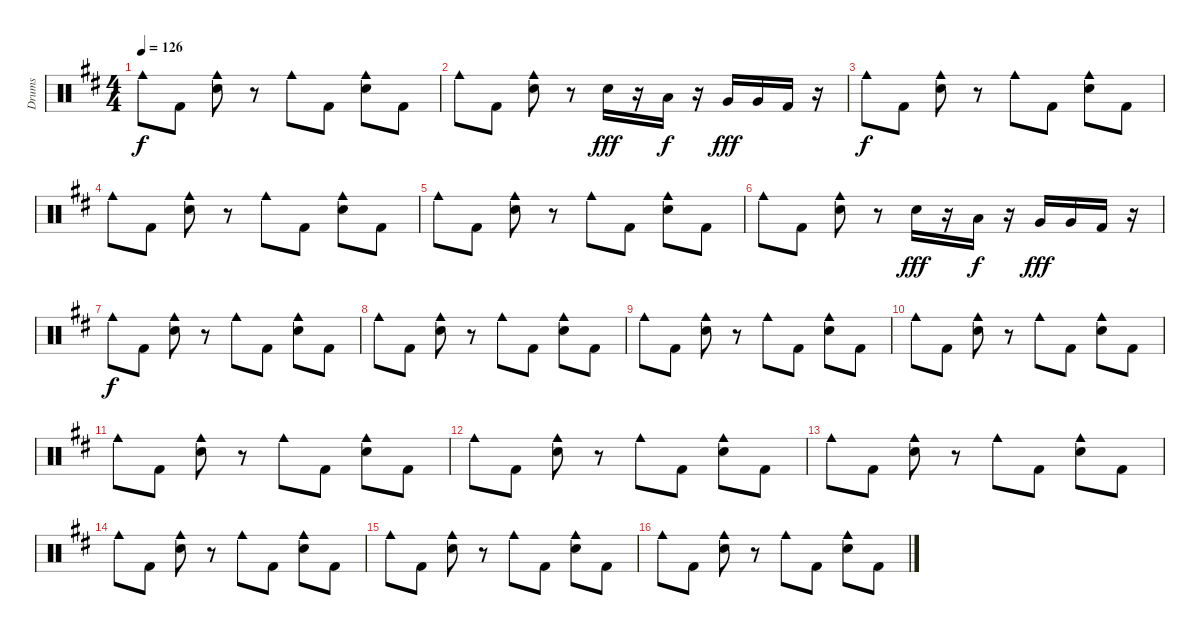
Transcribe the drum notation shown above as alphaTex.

\track ("Drums" "Drums") {instrument percussion}
\staff {score}
\articulation defaults
\ts (4 4)
\tempo 126
\clef neutral
\ks d "Cowbell medium (hit)".8{dy f} "Kick (hit) 2".8
("Cowbell medium (hit)" "Snare (hit) 2").8 r.8 "Cowbell medium (hit)".8 "Kick (hit) 2".8 ("Cowbell medium (hit)" "Snare (hit) 2").8 "Kick (hit) 2".8 |
"Cowbell medium (hit)".8 "Kick (hit) 2".8 ("Cowbell medium (hit)" "Snare (hit) 2").8 r.8 "Snare (hit) 2".16{dy fff} r.16 "Low Tom (hit)".16{dy f} r.16 "Very Low Tom (hit)".16{dy fff} "Very Low Tom (hit)".16 "Kick (hit) 2".16 r.16 |
"Cowbell medium (hit)".8{dy f} "Kick (hit) 2".8 ("Cowbell medium (hit)" "Snare (hit) 2").8 r.8 "Cowbell medium (hit)".8 "Kick (hit) 2".8 ("Cowbell medium (hit)" "Snare (hit) 2").8 "Kick (hit) 2".8 |
"Cowbell medium (hit)".8 "Kick (hit) 2".8 ("Cowbell medium (hit)" "Snare (hit) 2").8 r.8 "Cowbell medium (hit)".8 "Kick (hit) 2".8 ("Cowbell medium (hit)" "Snare (hit) 2").8 "Kick (hit) 2".8 |
"Cowbell medium (hit)".8 "Kick (hit) 2".8 ("Cowbell medium (hit)" "Snare (hit) 2").8 r.8 "Cowbell medium (hit)".8 "Kick (hit) 2".8 ("Cowbell medium (hit)" "Snare (hit) 2").8 "Kick (hit) 2".8 |
"Cowbell medium (hit)".8 "Kick (hit) 2".8 ("Cowbell medium (hit)" "Snare (hit) 2").8 r.8 "Snare (hit) 2".16{dy fff} r.16 "Low Tom (hit)".16{dy f} r.16 "Very Low Tom (hit)".16{dy fff} "Very Low Tom (hit)".16 "Kick (hit) 2".16 r.16 |
"Cowbell medium (hit)".8{dy f} "Kick (hit) 2".8 ("Cowbell medium (hit)" "Snare (hit) 2").8 r.8 "Cowbell medium (hit)".8 "Kick (hit) 2".8 ("Cowbell medium (hit)" "Snare (hit) 2").8 "Kick (hit) 2".8 |
"Cowbell medium (hit)".8 "Kick (hit) 2".8 ("Cowbell medium (hit)" "Snare (hit) 2").8 r.8 "Cowbell medium (hit)".8 "Kick (hit) 2".8 ("Cowbell medium (hit)" "Snare (hit) 2").8 "Kick (hit) 2".8 |
"Cowbell medium (hit)".8 "Kick (hit) 2".8 ("Cowbell medium (hit)" "Snare (hit) 2").8 r.8 "Cowbell medium (hit)".8 "Kick (hit) 2".8 ("Cowbell medium (hit)" "Snare (hit) 2").8 "Kick (hit) 2".8 |
"Cowbell medium (hit)".8 "Kick (hit) 2".8 ("Cowbell medium (hit)" "Snare (hit) 2").8 r.8 "Cowbell medium (hit)".8 "Kick (hit) 2".8 ("Cowbell medium (hit)" "Snare (hit) 2").8 "Kick (hit) 2".8 |
"Cowbell medium (hit)".8 "Kick (hit) 2".8 ("Cowbell medium (hit)" "Snare (hit) 2").8 r.8 "Cowbell medium (hit)".8 "Kick (hit) 2".8 ("Cowbell medium (hit)" "Snare (hit) 2").8 "Kick (hit) 2".8 |
"Cowbell medium (hit)".8 "Kick (hit) 2".8 ("Cowbell medium (hit)" "Snare (hit) 2").8 r.8 "Cowbell medium (hit)".8 "Kick (hit) 2".8 ("Cowbell medium (hit)" "Snare (hit) 2").8 "Kick (hit) 2".8 |
"Cowbell medium (hit)".8 "Kick (hit) 2".8 ("Cowbell medium (hit)" "Snare (hit) 2").8 r.8 "Cowbell medium (hit)".8 "Kick (hit) 2".8 ("Cowbell medium (hit)" "Snare (hit) 2").8 "Kick (hit) 2".8 |
"Cowbell medium (hit)".8 "Kick (hit) 2".8 ("Cowbell medium (hit)" "Snare (hit) 2").8 r.8 "Cowbell medium (hit)".8 "Kick (hit) 2".8 ("Cowbell medium (hit)" "Snare (hit) 2").8 "Kick (hit) 2".8 |
"Cowbell medium (hit)".8 "Kick (hit) 2".8 ("Cowbell medium (hit)" "Snare (hit) 2").8 r.8 "Cowbell medium (hit)".8 "Kick (hit) 2".8 ("Cowbell medium (hit)" "Snare (hit) 2").8 "Kick (hit) 2".8 |
"Cowbell medium (hit)".8 "Kick (hit) 2".8 ("Cowbell medium (hit)" "Snare (hit) 2").8 r.8 "Cowbell medium (hit)".8 "Kick (hit) 2".8 ("Cowbell medium (hit)" "Snare (hit) 2").8 "Kick (hit) 2".8
